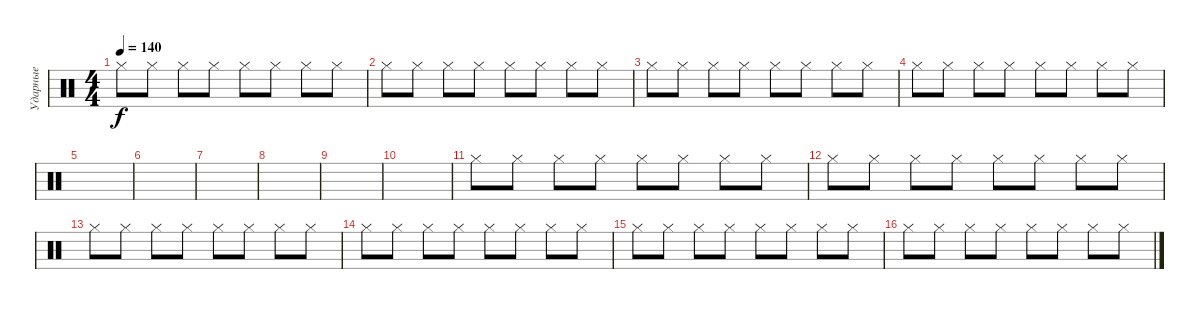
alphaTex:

\track ("Ударные" "Ударные") {instrument percussion}
\staff {score}
\articulation defaults
\ts (4 4)
\tempo 140
\clef neutral
\ks c "Hi-Hat (closed)".8{dy f} "Hi-Hat (closed)".8 "Hi-Hat (closed)".8 "Hi-Hat (closed)".8 "Hi-Hat (closed)".8 "Hi-Hat (closed)".8 "Hi-Hat (closed)".8 "Hi-Hat (closed)".8
|
"Hi-Hat (closed)".8 "Hi-Hat (closed)".8 "Hi-Hat (closed)".8 "Hi-Hat (closed)".8 "Hi-Hat (closed)".8 "Hi-Hat (closed)".8 "Hi-Hat (closed)".8 "Hi-Hat (closed)".8 |
"Hi-Hat (closed)".8 "Hi-Hat (closed)".8 "Hi-Hat (closed)".8 "Hi-Hat (closed)".8 "Hi-Hat (closed)".8 "Hi-Hat (closed)".8 "Hi-Hat (closed)".8 "Hi-Hat (closed)".8 |
"Hi-Hat (closed)".8 "Hi-Hat (closed)".8 "Hi-Hat (closed)".8 "Hi-Hat (closed)".8 "Hi-Hat (closed)".8 "Hi-Hat (closed)".8 "Hi-Hat (closed)".8 "Hi-Hat (closed)".8 |
|
|
|
|
|
|
"Hi-Hat (closed)".8 "Hi-Hat (closed)".8 "Hi-Hat (closed)".8 "Hi-Hat (closed)".8 "Hi-Hat (closed)".8 "Hi-Hat (closed)".8 "Hi-Hat (closed)".8 "Hi-Hat (closed)".8 |
"Hi-Hat (closed)".8 "Hi-Hat (closed)".8 "Hi-Hat (closed)".8 "Hi-Hat (closed)".8 "Hi-Hat (closed)".8 "Hi-Hat (closed)".8 "Hi-Hat (closed)".8 "Hi-Hat (closed)".8 |
"Hi-Hat (closed)".8 "Hi-Hat (closed)".8 "Hi-Hat (closed)".8 "Hi-Hat (closed)".8 "Hi-Hat (closed)".8 "Hi-Hat (closed)".8 "Hi-Hat (closed)".8 "Hi-Hat (closed)".8 |
"Hi-Hat (closed)".8 "Hi-Hat (closed)".8 "Hi-Hat (closed)".8 "Hi-Hat (closed)".8 "Hi-Hat (closed)".8 "Hi-Hat (closed)".8 "Hi-Hat (closed)".8 "Hi-Hat (closed)".8 |
"Hi-Hat (closed)".8 "Hi-Hat (closed)".8 "Hi-Hat (closed)".8 "Hi-Hat (closed)".8 "Hi-Hat (closed)".8 "Hi-Hat (closed)".8 "Hi-Hat (closed)".8 "Hi-Hat (closed)".8 |
"Hi-Hat (closed)".8 "Hi-Hat (closed)".8 "Hi-Hat (closed)".8 "Hi-Hat (closed)".8 "Hi-Hat (closed)".8 "Hi-Hat (closed)".8 "Hi-Hat (closed)".8 "Hi-Hat (closed)".8
